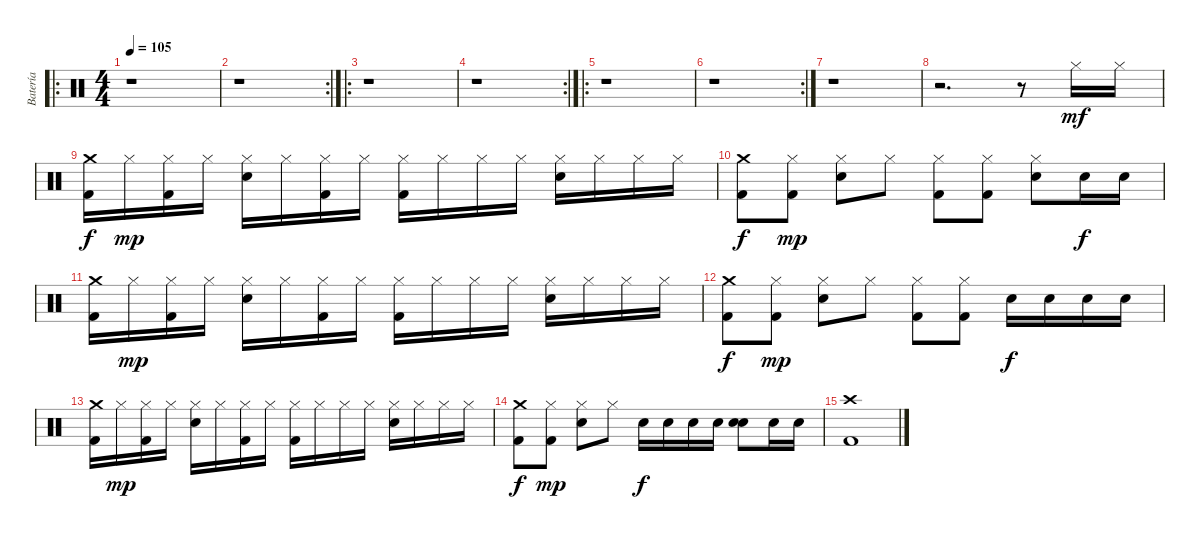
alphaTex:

\track ("Batería" "Batería") {instrument percussion}
\staff {score}
\articulation defaults
\ro
\ts (4 4)
\tempo 105
\clef neutral
\ks c
r.1{dy mf} |
\rc 2
r.1 |
\ro
r.1 |
\rc 2
r.1 |
\ro
r.1 |
\rc 2
r.1 |
r.1 |
r.2{d} r.8 "Hi-Hat (closed)".16 "Hi-Hat (closed)".16 |
("Crash medium (hit)" "Kick (hit) 2").16{dy f} "Hi-Hat (closed)".16{dy mp} ("Hi-Hat (closed)" "Kick (hit) 2").16 "Hi-Hat (closed)".16 ("Hi-Hat (closed)" "Snare (hit) 2").16 "Hi-Hat (closed)".16 ("Hi-Hat (closed)" "Kick (hit) 2").16 "Hi-Hat (closed)".16 ("Hi-Hat (closed)" "Kick (hit) 2").16 "Hi-Hat (closed)".16 "Hi-Hat (closed)".16 "Hi-Hat (closed)".16 ("Hi-Hat (closed)" "Snare (hit) 2").16 "Hi-Hat (closed)".16 "Hi-Hat (closed)".16 "Hi-Hat (closed)".16 |
("Crash medium (hit)" "Kick (hit) 2").8{dy f} ("Hi-Hat (closed)" "Kick (hit) 2").8{dy mp} ("Hi-Hat (closed)" "Snare (hit) 2").8 "Hi-Hat (closed)".8 ("Hi-Hat (closed)" "Kick (hit) 2").8 ("Hi-Hat (closed)" "Kick (hit) 2").8 ("Hi-Hat (closed)" "Snare (hit) 2").8 "Snare (hit) 2".16{dy f} "Snare (hit) 2".16 |
("Crash medium (hit)" "Kick (hit) 2").16 "Hi-Hat (closed)".16{dy mp} ("Hi-Hat (closed)" "Kick (hit) 2").16 "Hi-Hat (closed)".16 ("Hi-Hat (closed)" "Snare (hit) 2").16 "Hi-Hat (closed)".16 ("Hi-Hat (closed)" "Kick (hit) 2").16 "Hi-Hat (closed)".16 ("Hi-Hat (closed)" "Kick (hit) 2").16 "Hi-Hat (closed)".16 "Hi-Hat (closed)".16 "Hi-Hat (closed)".16 ("Hi-Hat (closed)" "Snare (hit) 2").16 "Hi-Hat (closed)".16 "Hi-Hat (closed)".16 "Hi-Hat (closed)".16 |
("Crash medium (hit)" "Kick (hit) 2").8{dy f} ("Hi-Hat (closed)" "Kick (hit) 2").8{dy mp} ("Hi-Hat (closed)" "Snare (hit) 2").8 "Hi-Hat (closed)".8 ("Hi-Hat (closed)" "Kick (hit) 2").8 ("Hi-Hat (closed)" "Kick (hit) 2").8 "Snare (hit) 2".16{dy f} "Snare (hit) 2".16 "Snare (hit) 2".16 "Snare (hit) 2".16 |
("Crash medium (hit)" "Kick (hit) 2").16 "Hi-Hat (closed)".16{dy mp} ("Hi-Hat (closed)" "Kick (hit) 2").16 "Hi-Hat (closed)".16 ("Hi-Hat (closed)" "Snare (hit) 2").16 "Hi-Hat (closed)".16 ("Hi-Hat (closed)" "Kick (hit) 2").16 "Hi-Hat (closed)".16 ("Hi-Hat (closed)" "Kick (hit) 2").16 "Hi-Hat (closed)".16 "Hi-Hat (closed)".16 "Hi-Hat (closed)".16 ("Hi-Hat (closed)" "Snare (hit) 2").16 "Hi-Hat (closed)".16 "Hi-Hat (closed)".16 "Hi-Hat (closed)".16 |
("Crash medium (hit)" "Kick (hit) 2").8{dy f} ("Hi-Hat (closed)" "Kick (hit) 2").8{dy mp} ("Hi-Hat (closed)" "Snare (hit) 2").8 "Hi-Hat (closed)".8 "Snare (hit) 2".16{dy f} "Snare (hit) 2".16 "Snare (hit) 2".16 "Snare (hit) 2".16 ("Snare (hit) 2" "Snare (hit) 2").8{bd 60} "Snare (hit) 2".16 "Snare (hit) 2".16 |
("Crash high (hit)" "Kick (hit) 2").1
